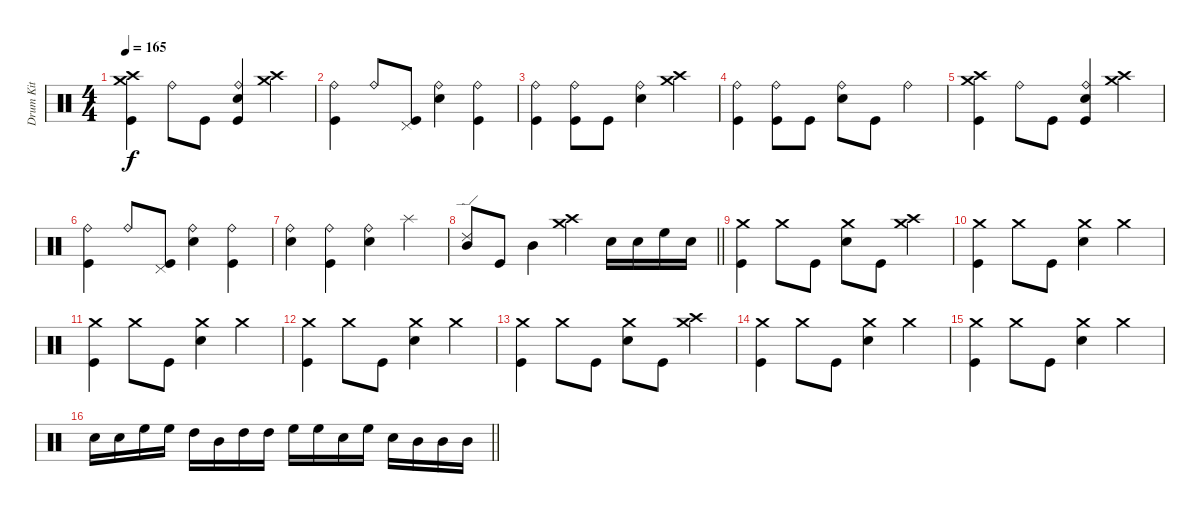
\track ("Drum Kit" "Drum Kit") {instrument percussion}
\staff {score}
\articulation defaults
\ts (4 4)
\tempo 165
\clef neutral
\ks c
("Crash high (hit)" "Crash medium (hit)" "Kick (hit)").4{dy f} "Ride (bell)".8 "Kick (hit)".8 ("Ride (bell)" "Snare (hit) 2" "Kick (hit)").4 ("Crash high (hit)" "Crash medium (hit)").4 |
("Ride (bell)" "Kick (hit)").4 "Ride (bell)".8 ("Pedal Hi-Hat (hit)" "Kick (hit)").8 ("Ride (bell)" "Snare (hit) 2").4 ("Ride (bell)" "Kick (hit)").4 |
("Ride (bell)" "Kick (hit)").4 ("Ride (bell)" "Kick (hit)").8 "Kick (hit)".8 ("Ride (bell)" "Snare (hit) 2").4 ("Crash high (hit)" "Crash medium (hit)").4 |
("Ride (bell)" "Kick (hit)").4 ("Ride (bell)" "Kick (hit)").8 "Kick (hit)".8 ("Ride (bell)" "Snare (hit) 2").8 "Kick (hit)".8 "Ride (bell)".4 |
("Crash high (hit)" "Crash medium (hit)" "Kick (hit)").4 "Ride (bell)".8 "Kick (hit)".8 ("Ride (bell)" "Snare (hit) 2" "Kick (hit)").4 ("Crash high (hit)" "Crash medium (hit)").4 |
("Ride (bell)" "Kick (hit)").4 "Ride (bell)".8 ("Pedal Hi-Hat (hit)" "Kick (hit)").8 ("Ride (bell)" "Snare (hit) 2").4 ("Ride (bell)" "Kick (hit)").4 |
("Ride (bell)" "Snare (hit) 2").4 ("Ride (bell)" "Kick (hit)").4 ("Ride (bell)" "Snare (hit) 2").4 "Splash (hit)".4 |
\barLineRight lightlight
("Mid Tom (hit)" "Ride (edge) 2").8 "Kick (hit)".8 "Mid Tom (hit)".4 ("Crash high (hit)" "Crash medium (hit)").4 "Snare (hit) 2".16 "Snare (hit) 2".16 "High Floor Tom (hit)".16 "Snare (hit) 2".16 |
("Crash medium (hit)" "Kick (hit)").4 "Crash medium (hit)".8 "Kick (hit)".8 ("Snare (hit) 2" "Crash medium (hit)").8 "Kick (hit)".8 ("Crash medium (hit)" "Crash high (hit)").4 |
("Crash medium (hit)" "Kick (hit)").4 "Crash medium (hit)".8 "Kick (hit)".8 ("Snare (hit) 2" "Crash medium (hit)").4 "Crash medium (hit)".4 |
("Crash medium (hit)" "Kick (hit)").4 "Crash medium (hit)".8 "Kick (hit)".8 ("Snare (hit) 2" "Crash medium (hit)").4 "Crash medium (hit)".4 |
("Crash medium (hit)" "Kick (hit)").4 "Crash medium (hit)".8 "Kick (hit)".8 ("Snare (hit) 2" "Crash medium (hit)").4 "Crash medium (hit)".4 |
("Crash medium (hit)" "Kick (hit)").4 "Crash medium (hit)".8 "Kick (hit)".8 ("Snare (hit) 2" "Crash medium (hit)").8 "Kick (hit)".8 ("Crash medium (hit)" "Crash high (hit)").4 |
("Crash medium (hit)" "Kick (hit)").4 "Crash medium (hit)".8 "Kick (hit)".8 ("Snare (hit) 2" "Crash medium (hit)").4 "Crash medium (hit)".4 |
("Crash medium (hit)" "Kick (hit)").4 "Crash medium (hit)".8 "Kick (hit)".8 ("Snare (hit) 2" "Crash medium (hit)").4 "Crash medium (hit)".4 |
\barLineRight lightlight "Snare (hit) 2".16 "Snare (hit) 2".16 "High Floor Tom (hit)".16 "High Floor Tom (hit)".16 "High Tom (hit)".16 "Mid Tom (hit)".16 "High Tom (hit)".16 "High Tom (hit)".16 "High Floor Tom (hit)".16 "High Floor Tom (hit)".16 "Snare (hit) 2".16 "High Floor Tom (hit)".16 "Snare (hit) 2".16 "Mid Tom (hit)".16 "Mid Tom (hit)".16 "Mid Tom (hit)".16
